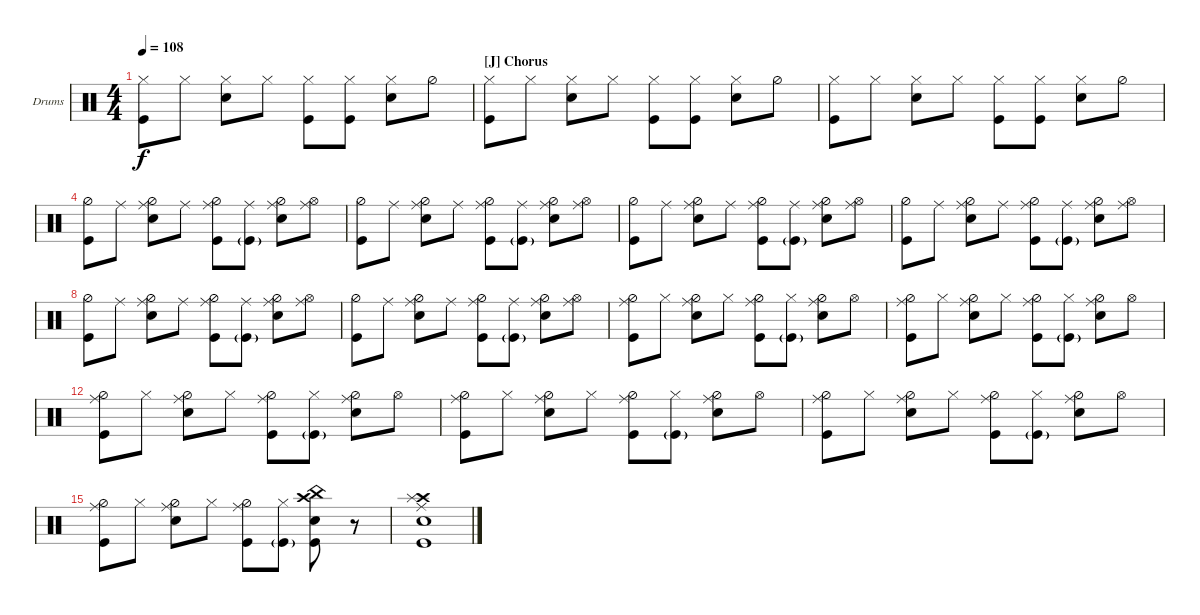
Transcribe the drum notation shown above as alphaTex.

\defaultSystemsLayout 4
\bracketExtendMode nobrackets
\firstSystemTrackNameOrientation horizontal
\otherSystemsTrackNameOrientation horizontal
\defaultBarNumberDisplay FirstOfSystem
\track ("Drumkit" "Drums") {instrument percussion}
\staff {score}
\articulation defaults
\ts (4 4)
\tempo 108
\clef neutral
\ks c
("Kick (hit)" "Hi-Hat (closed)").8{dy f} "Hi-Hat (closed)".8 ("Snare (hit) 2" "Hi-Hat (closed)").8 "Hi-Hat (closed)".8 ("Hi-Hat (closed)" "Kick (hit)").8 ("Hi-Hat (closed)" "Kick (hit)").8 ("Snare (hit) 2" "Hi-Hat (closed)").8 "Hi-Hat (half)".8 |
\section ("J" "Chorus")
("Kick (hit)" "Hi-Hat (closed)").8 "Hi-Hat (closed)".8 ("Snare (hit) 2" "Hi-Hat (closed)").8 "Hi-Hat (closed)".8 ("Hi-Hat (closed)" "Kick (hit)").8 ("Hi-Hat (closed)" "Kick (hit)").8 ("Snare (hit) 2" "Hi-Hat (closed)").8 "Hi-Hat (half)".8 |
("Kick (hit)" "Hi-Hat (closed)").8 "Hi-Hat (closed)".8 ("Snare (hit) 2" "Hi-Hat (closed)").8 "Hi-Hat (closed)".8 ("Hi-Hat (closed)" "Kick (hit)").8 ("Hi-Hat (closed)" "Kick (hit)").8 ("Snare (hit) 2" "Hi-Hat (closed)").8 "Hi-Hat (half)".8 |
("Kick (hit)" "Hi-Hat (half)").8 "Ride (middle)".8 ("Snare (hit) 2" "Hi-Hat (half)" "Ride (middle)").8 "Ride (middle)".8 ("Kick (hit)" "Hi-Hat (half)" "Ride (middle)").8 ("Kick (hit)"{g} "Ride (middle)").8 ("Snare (hit) 2" "Hi-Hat (half)" "Ride (middle)").8 ("Hi-Hat (open)" "Ride (middle)").8 |
("Kick (hit)" "Hi-Hat (half)").8 "Ride (middle)".8 ("Snare (hit) 2" "Hi-Hat (half)" "Ride (middle)").8 "Ride (middle)".8 ("Kick (hit)" "Hi-Hat (half)" "Ride (middle)").8 ("Kick (hit)"{g} "Ride (middle)").8 ("Snare (hit) 2" "Hi-Hat (half)" "Ride (middle)").8 ("Hi-Hat (open)" "Ride (middle)").8 |
("Kick (hit)" "Hi-Hat (half)").8 "Ride (middle)".8 ("Snare (hit) 2" "Hi-Hat (half)" "Ride (middle)").8 "Ride (middle)".8 ("Kick (hit)" "Hi-Hat (half)" "Ride (middle)").8 ("Kick (hit)"{g} "Ride (middle)").8 ("Snare (hit) 2" "Hi-Hat (half)" "Ride (middle)").8 ("Hi-Hat (open)" "Ride (middle)").8 |
("Kick (hit)" "Hi-Hat (half)").8 "Ride (middle)".8 ("Snare (hit) 2" "Hi-Hat (half)" "Ride (middle)").8 "Ride (middle)".8 ("Kick (hit)" "Hi-Hat (half)" "Ride (middle)").8 ("Kick (hit)"{g} "Ride (middle)").8 ("Snare (hit) 2" "Hi-Hat (half)" "Ride (middle)").8 ("Hi-Hat (open)" "Ride (middle)").8 |
("Kick (hit)" "Hi-Hat (half)").8 "Ride (middle)".8 ("Snare (hit) 2" "Hi-Hat (half)" "Ride (middle)").8 "Ride (middle)".8 ("Kick (hit)" "Hi-Hat (half)" "Ride (middle)").8 ("Kick (hit)"{g} "Ride (middle)").8 ("Snare (hit) 2" "Hi-Hat (half)" "Ride (middle)").8 ("Hi-Hat (open)" "Ride (middle)").8 |
("Kick (hit)" "Hi-Hat (half)").8 "Ride (middle)".8 ("Snare (hit) 2" "Hi-Hat (half)" "Ride (middle)").8 "Ride (middle)".8 ("Kick (hit)" "Hi-Hat (half)" "Ride (middle)").8 ("Kick (hit)"{g} "Ride (middle)").8 ("Snare (hit) 2" "Hi-Hat (half)" "Ride (middle)").8 ("Hi-Hat (open)" "Ride (middle)").8 |
("Kick (hit)" "Hi-Hat (half)" "Ride (middle)").8 "Hi-Hat (closed)".8 ("Snare (hit) 2" "Hi-Hat (half)" "Ride (middle)").8 "Hi-Hat (closed)".8 ("Kick (hit)" "Hi-Hat (half)" "Ride (middle)").8 ("Hi-Hat (closed)" "Kick (hit)"{g}).8 ("Snare (hit) 2" "Hi-Hat (half)" "Ride (middle)").8 "Hi-Hat (open)".8 |
("Kick (hit)" "Hi-Hat (half)" "Ride (middle)").8 "Hi-Hat (closed)".8 ("Snare (hit) 2" "Hi-Hat (half)" "Ride (middle)").8 "Hi-Hat (closed)".8 ("Kick (hit)" "Hi-Hat (half)" "Ride (middle)").8 ("Hi-Hat (closed)" "Kick (hit)"{g}).8 ("Snare (hit) 2" "Hi-Hat (half)" "Ride (middle)").8 "Hi-Hat (open)".8 |
("Kick (hit)" "Hi-Hat (half)" "Ride (middle)").8 "Hi-Hat (closed)".8 ("Snare (hit) 2" "Hi-Hat (half)" "Ride (middle)").8 "Hi-Hat (closed)".8 ("Kick (hit)" "Hi-Hat (half)" "Ride (middle)").8 ("Hi-Hat (closed)" "Kick (hit)"{g}).8 ("Snare (hit) 2" "Hi-Hat (half)" "Ride (middle)").8 "Hi-Hat (open)".8 |
("Kick (hit)" "Hi-Hat (half)" "Ride (middle)").8 "Hi-Hat (closed)".8 ("Snare (hit) 2" "Hi-Hat (half)" "Ride (middle)").8 "Hi-Hat (closed)".8 ("Kick (hit)" "Hi-Hat (half)" "Ride (middle)").8 ("Hi-Hat (closed)" "Kick (hit)"{g}).8 ("Snare (hit) 2" "Hi-Hat (half)" "Ride (middle)").8 "Hi-Hat (open)".8 |
("Kick (hit)" "Hi-Hat (half)" "Ride (middle)").8 "Hi-Hat (closed)".8 ("Snare (hit) 2" "Hi-Hat (half)" "Ride (middle)").8 "Hi-Hat (closed)".8 ("Kick (hit)" "Hi-Hat (half)" "Ride (middle)").8 ("Hi-Hat (closed)" "Kick (hit)"{g}).8 ("Snare (hit) 2" "Hi-Hat (half)" "Ride (middle)").8 "Hi-Hat (open)".8 |
("Kick (hit)" "Hi-Hat (half)" "Ride (middle)").8 "Hi-Hat (closed)".8 ("Snare (hit) 2" "Hi-Hat (half)" "Ride (middle)").8 "Hi-Hat (closed)".8 ("Kick (hit)" "Hi-Hat (half)" "Ride (middle)").8 ("Hi-Hat (closed)" "Kick (hit)"{g}).8 ("Snare (hit) 2" "Crash high (hit)" "Kick (hit)" "China (hit)").8 r.8 |
("Kick (hit)" "Ride (middle)" "Snare (hit) 2" "Crash high (hit)" "Splash (hit)").1
